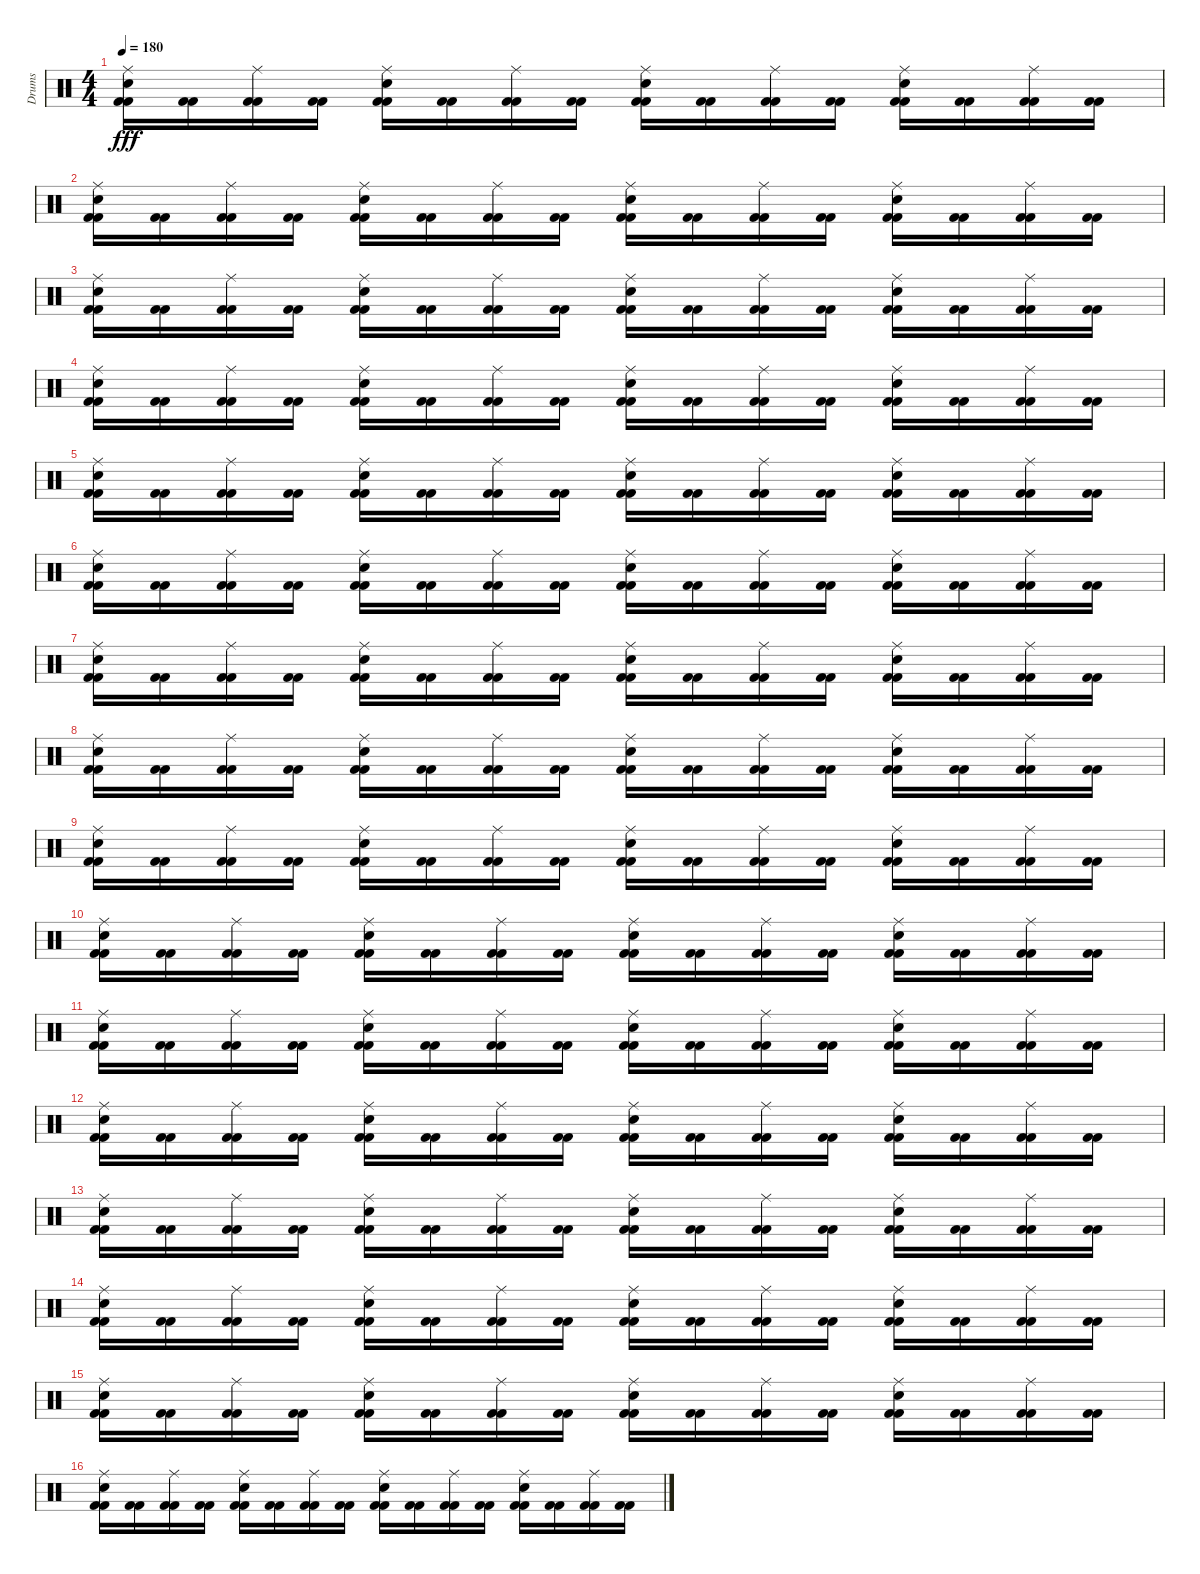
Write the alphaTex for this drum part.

\track ("Drums" "Drums") {instrument percussion}
\staff {score}
\articulation defaults
\ts (4 4)
\tempo 180
\clef neutral
\ks c
("Kick (hit) 2" "Kick (hit) 2" "Electric Snare (hit)" "Ride (middle)").16{dy fff} ("Kick (hit) 2" "Kick (hit) 2").16 ("Kick (hit) 2" "Kick (hit) 2" "Ride (middle)").16 ("Kick (hit) 2" "Kick (hit) 2").16 ("Kick (hit) 2" "Kick (hit) 2" "Electric Snare (hit)" "Ride (middle)").16 ("Kick (hit) 2" "Kick (hit) 2").16 ("Kick (hit) 2" "Kick (hit) 2" "Ride (middle)").16 ("Kick (hit) 2" "Kick (hit) 2").16 ("Kick (hit) 2" "Kick (hit) 2" "Electric Snare (hit)" "Ride (middle)").16 ("Kick (hit) 2" "Kick (hit) 2").16 ("Kick (hit) 2" "Kick (hit) 2" "Ride (middle)").16 ("Kick (hit) 2" "Kick (hit) 2").16 ("Kick (hit) 2" "Kick (hit) 2" "Electric Snare (hit)" "Ride (middle)").16 ("Kick (hit) 2" "Kick (hit) 2").16 ("Kick (hit) 2" "Kick (hit) 2" "Ride (middle)").16 ("Kick (hit) 2" "Kick (hit) 2").16 |
("Kick (hit) 2" "Kick (hit) 2" "Electric Snare (hit)" "Ride (middle)").16 ("Kick (hit) 2" "Kick (hit) 2").16 ("Kick (hit) 2" "Kick (hit) 2" "Ride (middle)").16 ("Kick (hit) 2" "Kick (hit) 2").16 ("Kick (hit) 2" "Kick (hit) 2" "Electric Snare (hit)" "Ride (middle)").16 ("Kick (hit) 2" "Kick (hit) 2").16 ("Kick (hit) 2" "Kick (hit) 2" "Ride (middle)").16 ("Kick (hit) 2" "Kick (hit) 2").16 ("Kick (hit) 2" "Kick (hit) 2" "Electric Snare (hit)" "Ride (middle)").16 ("Kick (hit) 2" "Kick (hit) 2").16 ("Kick (hit) 2" "Kick (hit) 2" "Ride (middle)").16 ("Kick (hit) 2" "Kick (hit) 2").16 ("Kick (hit) 2" "Kick (hit) 2" "Electric Snare (hit)" "Ride (middle)").16 ("Kick (hit) 2" "Kick (hit) 2").16 ("Kick (hit) 2" "Kick (hit) 2" "Ride (middle)").16 ("Kick (hit) 2" "Kick (hit) 2").16 |
("Kick (hit) 2" "Kick (hit) 2" "Electric Snare (hit)" "Ride (middle)").16 ("Kick (hit) 2" "Kick (hit) 2").16 ("Kick (hit) 2" "Kick (hit) 2" "Ride (middle)").16 ("Kick (hit) 2" "Kick (hit) 2").16 ("Kick (hit) 2" "Kick (hit) 2" "Electric Snare (hit)" "Ride (middle)").16 ("Kick (hit) 2" "Kick (hit) 2").16 ("Kick (hit) 2" "Kick (hit) 2" "Ride (middle)").16 ("Kick (hit) 2" "Kick (hit) 2").16 ("Kick (hit) 2" "Kick (hit) 2" "Electric Snare (hit)" "Ride (middle)").16 ("Kick (hit) 2" "Kick (hit) 2").16 ("Kick (hit) 2" "Kick (hit) 2" "Ride (middle)").16 ("Kick (hit) 2" "Kick (hit) 2").16 ("Kick (hit) 2" "Kick (hit) 2" "Electric Snare (hit)" "Ride (middle)").16 ("Kick (hit) 2" "Kick (hit) 2").16 ("Kick (hit) 2" "Kick (hit) 2" "Ride (middle)").16 ("Kick (hit) 2" "Kick (hit) 2").16 |
("Kick (hit) 2" "Kick (hit) 2" "Electric Snare (hit)" "Ride (middle)").16 ("Kick (hit) 2" "Kick (hit) 2").16 ("Kick (hit) 2" "Kick (hit) 2" "Ride (middle)").16 ("Kick (hit) 2" "Kick (hit) 2").16 ("Kick (hit) 2" "Kick (hit) 2" "Electric Snare (hit)" "Ride (middle)").16 ("Kick (hit) 2" "Kick (hit) 2").16 ("Kick (hit) 2" "Kick (hit) 2" "Ride (middle)").16 ("Kick (hit) 2" "Kick (hit) 2").16 ("Kick (hit) 2" "Kick (hit) 2" "Electric Snare (hit)" "Ride (middle)").16 ("Kick (hit) 2" "Kick (hit) 2").16 ("Kick (hit) 2" "Kick (hit) 2" "Ride (middle)").16 ("Kick (hit) 2" "Kick (hit) 2").16 ("Kick (hit) 2" "Kick (hit) 2" "Electric Snare (hit)" "Ride (middle)").16 ("Kick (hit) 2" "Kick (hit) 2").16 ("Kick (hit) 2" "Kick (hit) 2" "Ride (middle)").16 ("Kick (hit) 2" "Kick (hit) 2").16 |
("Kick (hit) 2" "Kick (hit) 2" "Electric Snare (hit)" "Ride (middle)").16 ("Kick (hit) 2" "Kick (hit) 2").16 ("Kick (hit) 2" "Kick (hit) 2" "Ride (middle)").16 ("Kick (hit) 2" "Kick (hit) 2").16 ("Kick (hit) 2" "Kick (hit) 2" "Electric Snare (hit)" "Ride (middle)").16 ("Kick (hit) 2" "Kick (hit) 2").16 ("Kick (hit) 2" "Kick (hit) 2" "Ride (middle)").16 ("Kick (hit) 2" "Kick (hit) 2").16 ("Kick (hit) 2" "Kick (hit) 2" "Electric Snare (hit)" "Ride (middle)").16 ("Kick (hit) 2" "Kick (hit) 2").16 ("Kick (hit) 2" "Kick (hit) 2" "Ride (middle)").16 ("Kick (hit) 2" "Kick (hit) 2").16 ("Kick (hit) 2" "Kick (hit) 2" "Electric Snare (hit)" "Ride (middle)").16 ("Kick (hit) 2" "Kick (hit) 2").16 ("Kick (hit) 2" "Kick (hit) 2" "Ride (middle)").16 ("Kick (hit) 2" "Kick (hit) 2").16 |
("Kick (hit) 2" "Kick (hit) 2" "Electric Snare (hit)" "Ride (middle)").16 ("Kick (hit) 2" "Kick (hit) 2").16 ("Kick (hit) 2" "Kick (hit) 2" "Ride (middle)").16 ("Kick (hit) 2" "Kick (hit) 2").16 ("Kick (hit) 2" "Kick (hit) 2" "Electric Snare (hit)" "Ride (middle)").16 ("Kick (hit) 2" "Kick (hit) 2").16 ("Kick (hit) 2" "Kick (hit) 2" "Ride (middle)").16 ("Kick (hit) 2" "Kick (hit) 2").16 ("Kick (hit) 2" "Kick (hit) 2" "Electric Snare (hit)" "Ride (middle)").16 ("Kick (hit) 2" "Kick (hit) 2").16 ("Kick (hit) 2" "Kick (hit) 2" "Ride (middle)").16 ("Kick (hit) 2" "Kick (hit) 2").16 ("Kick (hit) 2" "Kick (hit) 2" "Electric Snare (hit)" "Ride (middle)").16 ("Kick (hit) 2" "Kick (hit) 2").16 ("Kick (hit) 2" "Kick (hit) 2" "Ride (middle)").16 ("Kick (hit) 2" "Kick (hit) 2").16 |
("Kick (hit) 2" "Kick (hit) 2" "Electric Snare (hit)" "Ride (middle)").16 ("Kick (hit) 2" "Kick (hit) 2").16 ("Kick (hit) 2" "Kick (hit) 2" "Ride (middle)").16 ("Kick (hit) 2" "Kick (hit) 2").16 ("Kick (hit) 2" "Kick (hit) 2" "Electric Snare (hit)" "Ride (middle)").16 ("Kick (hit) 2" "Kick (hit) 2").16 ("Kick (hit) 2" "Kick (hit) 2" "Ride (middle)").16 ("Kick (hit) 2" "Kick (hit) 2").16 ("Kick (hit) 2" "Kick (hit) 2" "Electric Snare (hit)" "Ride (middle)").16 ("Kick (hit) 2" "Kick (hit) 2").16 ("Kick (hit) 2" "Kick (hit) 2" "Ride (middle)").16 ("Kick (hit) 2" "Kick (hit) 2").16 ("Kick (hit) 2" "Kick (hit) 2" "Electric Snare (hit)" "Ride (middle)").16 ("Kick (hit) 2" "Kick (hit) 2").16 ("Kick (hit) 2" "Kick (hit) 2" "Ride (middle)").16 ("Kick (hit) 2" "Kick (hit) 2").16 |
("Kick (hit) 2" "Kick (hit) 2" "Electric Snare (hit)" "Ride (middle)").16 ("Kick (hit) 2" "Kick (hit) 2").16 ("Kick (hit) 2" "Kick (hit) 2" "Ride (middle)").16 ("Kick (hit) 2" "Kick (hit) 2").16 ("Kick (hit) 2" "Kick (hit) 2" "Electric Snare (hit)" "Ride (middle)").16 ("Kick (hit) 2" "Kick (hit) 2").16 ("Kick (hit) 2" "Kick (hit) 2" "Ride (middle)").16 ("Kick (hit) 2" "Kick (hit) 2").16 ("Kick (hit) 2" "Kick (hit) 2" "Electric Snare (hit)" "Ride (middle)").16 ("Kick (hit) 2" "Kick (hit) 2").16 ("Kick (hit) 2" "Kick (hit) 2" "Ride (middle)").16 ("Kick (hit) 2" "Kick (hit) 2").16 ("Kick (hit) 2" "Kick (hit) 2" "Electric Snare (hit)" "Ride (middle)").16 ("Kick (hit) 2" "Kick (hit) 2").16 ("Kick (hit) 2" "Kick (hit) 2" "Ride (middle)").16 ("Kick (hit) 2" "Kick (hit) 2").16 |
("Kick (hit) 2" "Kick (hit) 2" "Electric Snare (hit)" "Ride (middle)").16 ("Kick (hit) 2" "Kick (hit) 2").16 ("Kick (hit) 2" "Kick (hit) 2" "Ride (middle)").16 ("Kick (hit) 2" "Kick (hit) 2").16 ("Kick (hit) 2" "Kick (hit) 2" "Electric Snare (hit)" "Ride (middle)").16 ("Kick (hit) 2" "Kick (hit) 2").16 ("Kick (hit) 2" "Kick (hit) 2" "Ride (middle)").16 ("Kick (hit) 2" "Kick (hit) 2").16 ("Kick (hit) 2" "Kick (hit) 2" "Electric Snare (hit)" "Ride (middle)").16 ("Kick (hit) 2" "Kick (hit) 2").16 ("Kick (hit) 2" "Kick (hit) 2" "Ride (middle)").16 ("Kick (hit) 2" "Kick (hit) 2").16 ("Kick (hit) 2" "Kick (hit) 2" "Electric Snare (hit)" "Ride (middle)").16 ("Kick (hit) 2" "Kick (hit) 2").16 ("Kick (hit) 2" "Kick (hit) 2" "Ride (middle)").16 ("Kick (hit) 2" "Kick (hit) 2").16 |
("Kick (hit) 2" "Kick (hit) 2" "Electric Snare (hit)" "Ride (middle)").16 ("Kick (hit) 2" "Kick (hit) 2").16 ("Kick (hit) 2" "Kick (hit) 2" "Ride (middle)").16 ("Kick (hit) 2" "Kick (hit) 2").16 ("Kick (hit) 2" "Kick (hit) 2" "Electric Snare (hit)" "Ride (middle)").16 ("Kick (hit) 2" "Kick (hit) 2").16 ("Kick (hit) 2" "Kick (hit) 2" "Ride (middle)").16 ("Kick (hit) 2" "Kick (hit) 2").16 ("Kick (hit) 2" "Kick (hit) 2" "Electric Snare (hit)" "Ride (middle)").16 ("Kick (hit) 2" "Kick (hit) 2").16 ("Kick (hit) 2" "Kick (hit) 2" "Ride (middle)").16 ("Kick (hit) 2" "Kick (hit) 2").16 ("Kick (hit) 2" "Kick (hit) 2" "Electric Snare (hit)" "Ride (middle)").16 ("Kick (hit) 2" "Kick (hit) 2").16 ("Kick (hit) 2" "Kick (hit) 2" "Ride (middle)").16 ("Kick (hit) 2" "Kick (hit) 2").16 |
("Kick (hit) 2" "Kick (hit) 2" "Electric Snare (hit)" "Ride (middle)").16 ("Kick (hit) 2" "Kick (hit) 2").16 ("Kick (hit) 2" "Kick (hit) 2" "Ride (middle)").16 ("Kick (hit) 2" "Kick (hit) 2").16 ("Kick (hit) 2" "Kick (hit) 2" "Electric Snare (hit)" "Ride (middle)").16 ("Kick (hit) 2" "Kick (hit) 2").16 ("Kick (hit) 2" "Kick (hit) 2" "Ride (middle)").16 ("Kick (hit) 2" "Kick (hit) 2").16 ("Kick (hit) 2" "Kick (hit) 2" "Electric Snare (hit)" "Ride (middle)").16 ("Kick (hit) 2" "Kick (hit) 2").16 ("Kick (hit) 2" "Kick (hit) 2" "Ride (middle)").16 ("Kick (hit) 2" "Kick (hit) 2").16 ("Kick (hit) 2" "Kick (hit) 2" "Electric Snare (hit)" "Ride (middle)").16 ("Kick (hit) 2" "Kick (hit) 2").16 ("Kick (hit) 2" "Kick (hit) 2" "Ride (middle)").16 ("Kick (hit) 2" "Kick (hit) 2").16 |
("Kick (hit) 2" "Kick (hit) 2" "Electric Snare (hit)" "Ride (middle)").16 ("Kick (hit) 2" "Kick (hit) 2").16 ("Kick (hit) 2" "Kick (hit) 2" "Ride (middle)").16 ("Kick (hit) 2" "Kick (hit) 2").16 ("Kick (hit) 2" "Kick (hit) 2" "Electric Snare (hit)" "Ride (middle)").16 ("Kick (hit) 2" "Kick (hit) 2").16 ("Kick (hit) 2" "Kick (hit) 2" "Ride (middle)").16 ("Kick (hit) 2" "Kick (hit) 2").16 ("Kick (hit) 2" "Kick (hit) 2" "Electric Snare (hit)" "Ride (middle)").16 ("Kick (hit) 2" "Kick (hit) 2").16 ("Kick (hit) 2" "Kick (hit) 2" "Ride (middle)").16 ("Kick (hit) 2" "Kick (hit) 2").16 ("Kick (hit) 2" "Kick (hit) 2" "Electric Snare (hit)" "Ride (middle)").16 ("Kick (hit) 2" "Kick (hit) 2").16 ("Kick (hit) 2" "Kick (hit) 2" "Ride (middle)").16 ("Kick (hit) 2" "Kick (hit) 2").16 |
("Kick (hit) 2" "Kick (hit) 2" "Electric Snare (hit)" "Ride (middle)").16 ("Kick (hit) 2" "Kick (hit) 2").16 ("Kick (hit) 2" "Kick (hit) 2" "Ride (middle)").16 ("Kick (hit) 2" "Kick (hit) 2").16 ("Kick (hit) 2" "Kick (hit) 2" "Electric Snare (hit)" "Ride (middle)").16 ("Kick (hit) 2" "Kick (hit) 2").16 ("Kick (hit) 2" "Kick (hit) 2" "Ride (middle)").16 ("Kick (hit) 2" "Kick (hit) 2").16 ("Kick (hit) 2" "Kick (hit) 2" "Electric Snare (hit)" "Ride (middle)").16 ("Kick (hit) 2" "Kick (hit) 2").16 ("Kick (hit) 2" "Kick (hit) 2" "Ride (middle)").16 ("Kick (hit) 2" "Kick (hit) 2").16 ("Kick (hit) 2" "Kick (hit) 2" "Electric Snare (hit)" "Ride (middle)").16 ("Kick (hit) 2" "Kick (hit) 2").16 ("Kick (hit) 2" "Kick (hit) 2" "Ride (middle)").16 ("Kick (hit) 2" "Kick (hit) 2").16 |
("Kick (hit) 2" "Kick (hit) 2" "Electric Snare (hit)" "Ride (middle)").16 ("Kick (hit) 2" "Kick (hit) 2").16 ("Kick (hit) 2" "Kick (hit) 2" "Ride (middle)").16 ("Kick (hit) 2" "Kick (hit) 2").16 ("Kick (hit) 2" "Kick (hit) 2" "Electric Snare (hit)" "Ride (middle)").16 ("Kick (hit) 2" "Kick (hit) 2").16 ("Kick (hit) 2" "Kick (hit) 2" "Ride (middle)").16 ("Kick (hit) 2" "Kick (hit) 2").16 ("Kick (hit) 2" "Kick (hit) 2" "Electric Snare (hit)" "Ride (middle)").16 ("Kick (hit) 2" "Kick (hit) 2").16 ("Kick (hit) 2" "Kick (hit) 2" "Ride (middle)").16 ("Kick (hit) 2" "Kick (hit) 2").16 ("Kick (hit) 2" "Kick (hit) 2" "Electric Snare (hit)" "Ride (middle)").16 ("Kick (hit) 2" "Kick (hit) 2").16 ("Kick (hit) 2" "Kick (hit) 2" "Ride (middle)").16 ("Kick (hit) 2" "Kick (hit) 2").16 |
("Kick (hit) 2" "Kick (hit) 2" "Electric Snare (hit)" "Ride (middle)").16 ("Kick (hit) 2" "Kick (hit) 2").16 ("Kick (hit) 2" "Kick (hit) 2" "Ride (middle)").16 ("Kick (hit) 2" "Kick (hit) 2").16 ("Kick (hit) 2" "Kick (hit) 2" "Electric Snare (hit)" "Ride (middle)").16 ("Kick (hit) 2" "Kick (hit) 2").16 ("Kick (hit) 2" "Kick (hit) 2" "Ride (middle)").16 ("Kick (hit) 2" "Kick (hit) 2").16 ("Kick (hit) 2" "Kick (hit) 2" "Electric Snare (hit)" "Ride (middle)").16 ("Kick (hit) 2" "Kick (hit) 2").16 ("Kick (hit) 2" "Kick (hit) 2" "Ride (middle)").16 ("Kick (hit) 2" "Kick (hit) 2").16 ("Kick (hit) 2" "Kick (hit) 2" "Electric Snare (hit)" "Ride (middle)").16 ("Kick (hit) 2" "Kick (hit) 2").16 ("Kick (hit) 2" "Kick (hit) 2" "Ride (middle)").16 ("Kick (hit) 2" "Kick (hit) 2").16 |
("Kick (hit) 2" "Kick (hit) 2" "Electric Snare (hit)" "Ride (middle)").16 ("Kick (hit) 2" "Kick (hit) 2").16 ("Kick (hit) 2" "Kick (hit) 2" "Ride (middle)").16 ("Kick (hit) 2" "Kick (hit) 2").16 ("Kick (hit) 2" "Kick (hit) 2" "Electric Snare (hit)" "Ride (middle)").16 ("Kick (hit) 2" "Kick (hit) 2").16 ("Kick (hit) 2" "Kick (hit) 2" "Ride (middle)").16 ("Kick (hit) 2" "Kick (hit) 2").16 ("Kick (hit) 2" "Kick (hit) 2" "Electric Snare (hit)" "Ride (middle)").16 ("Kick (hit) 2" "Kick (hit) 2").16 ("Kick (hit) 2" "Kick (hit) 2" "Ride (middle)").16 ("Kick (hit) 2" "Kick (hit) 2").16 ("Kick (hit) 2" "Kick (hit) 2" "Electric Snare (hit)" "Ride (middle)").16 ("Kick (hit) 2" "Kick (hit) 2").16 ("Kick (hit) 2" "Kick (hit) 2" "Ride (middle)").16 ("Kick (hit) 2" "Kick (hit) 2").16
